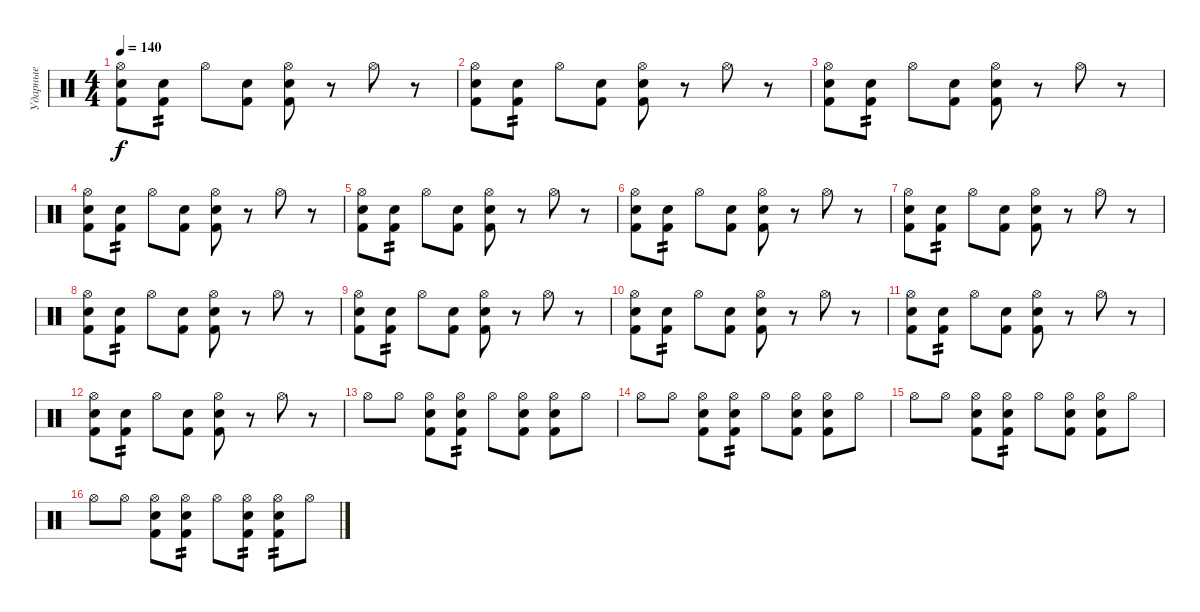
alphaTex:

\track ("Ударные" "Ударные") {instrument percussion}
\staff {score}
\articulation defaults
\ts (4 4)
\tempo 140
\clef neutral
\ks c
("Snare (hit) 2" "Kick (hit) 2" "Hi-Hat (open)").8{dy f} ("Snare (hit) 2" "Kick (hit) 2").8{tp 2} "Hi-Hat (open)".8 ("Snare (hit) 2" "Kick (hit) 2").8 ("Snare (hit) 2" "Kick (hit) 2" "Hi-Hat (open)").8 r.8 "Hi-Hat (open)".8 r.8 |
("Snare (hit) 2" "Kick (hit) 2" "Hi-Hat (open)").8 ("Snare (hit) 2" "Kick (hit) 2").8{tp 2} "Hi-Hat (open)".8 ("Snare (hit) 2" "Kick (hit) 2").8 ("Snare (hit) 2" "Kick (hit) 2" "Hi-Hat (open)").8 r.8 "Hi-Hat (open)".8 r.8 |
("Snare (hit) 2" "Kick (hit) 2" "Hi-Hat (open)").8 ("Snare (hit) 2" "Kick (hit) 2").8{tp 2} "Hi-Hat (open)".8 ("Snare (hit) 2" "Kick (hit) 2").8 ("Snare (hit) 2" "Kick (hit) 2" "Hi-Hat (open)").8 r.8 "Hi-Hat (open)".8 r.8 |
("Snare (hit) 2" "Kick (hit) 2" "Hi-Hat (open)").8 ("Snare (hit) 2" "Kick (hit) 2").8{tp 2} "Hi-Hat (open)".8 ("Snare (hit) 2" "Kick (hit) 2").8 ("Snare (hit) 2" "Kick (hit) 2" "Hi-Hat (open)").8 r.8 "Hi-Hat (open)".8 r.8 |
("Snare (hit) 2" "Kick (hit) 2" "Hi-Hat (open)").8 ("Snare (hit) 2" "Kick (hit) 2").8{tp 2} "Hi-Hat (open)".8 ("Snare (hit) 2" "Kick (hit) 2").8 ("Snare (hit) 2" "Kick (hit) 2" "Hi-Hat (open)").8 r.8 "Hi-Hat (open)".8 r.8 |
("Snare (hit) 2" "Kick (hit) 2" "Hi-Hat (open)").8 ("Snare (hit) 2" "Kick (hit) 2").8{tp 2} "Hi-Hat (open)".8 ("Snare (hit) 2" "Kick (hit) 2").8 ("Snare (hit) 2" "Kick (hit) 2" "Hi-Hat (open)").8 r.8 "Hi-Hat (open)".8 r.8 |
("Snare (hit) 2" "Kick (hit) 2" "Hi-Hat (open)").8 ("Snare (hit) 2" "Kick (hit) 2").8{tp 2} "Hi-Hat (open)".8 ("Snare (hit) 2" "Kick (hit) 2").8 ("Snare (hit) 2" "Kick (hit) 2" "Hi-Hat (open)").8 r.8 "Hi-Hat (open)".8 r.8 |
("Snare (hit) 2" "Kick (hit) 2" "Hi-Hat (open)").8 ("Snare (hit) 2" "Kick (hit) 2").8{tp 2} "Hi-Hat (open)".8 ("Snare (hit) 2" "Kick (hit) 2").8 ("Snare (hit) 2" "Kick (hit) 2" "Hi-Hat (open)").8 r.8 "Hi-Hat (open)".8 r.8 |
("Snare (hit) 2" "Kick (hit) 2" "Hi-Hat (open)").8 ("Snare (hit) 2" "Kick (hit) 2").8{tp 2} "Hi-Hat (open)".8 ("Snare (hit) 2" "Kick (hit) 2").8 ("Snare (hit) 2" "Kick (hit) 2" "Hi-Hat (open)").8 r.8 "Hi-Hat (open)".8 r.8 |
("Snare (hit) 2" "Kick (hit) 2" "Hi-Hat (open)").8 ("Snare (hit) 2" "Kick (hit) 2").8{tp 2} "Hi-Hat (open)".8 ("Snare (hit) 2" "Kick (hit) 2").8 ("Snare (hit) 2" "Kick (hit) 2" "Hi-Hat (open)").8 r.8 "Hi-Hat (open)".8 r.8 |
("Snare (hit) 2" "Kick (hit) 2" "Hi-Hat (open)").8 ("Snare (hit) 2" "Kick (hit) 2").8{tp 2} "Hi-Hat (open)".8 ("Snare (hit) 2" "Kick (hit) 2").8 ("Snare (hit) 2" "Kick (hit) 2" "Hi-Hat (open)").8 r.8 "Hi-Hat (open)".8 r.8 |
("Snare (hit) 2" "Kick (hit) 2" "Hi-Hat (open)").8 ("Snare (hit) 2" "Kick (hit) 2").8{tp 2} "Hi-Hat (open)".8 ("Snare (hit) 2" "Kick (hit) 2").8 ("Snare (hit) 2" "Kick (hit) 2" "Hi-Hat (open)").8 r.8 "Hi-Hat (open)".8 r.8 |
"Hi-Hat (open)".8 "Hi-Hat (open)".8 ("Snare (hit) 2" "Kick (hit) 2" "Hi-Hat (open)").8 ("Snare (hit) 2" "Kick (hit) 2" "Hi-Hat (open)").8{tp 2} "Hi-Hat (open)".8 ("Snare (hit) 2" "Kick (hit) 2" "Hi-Hat (open)").8 ("Snare (hit) 2" "Kick (hit) 2" "Hi-Hat (open)").8 "Hi-Hat (open)".8 |
"Hi-Hat (open)".8 "Hi-Hat (open)".8 ("Snare (hit) 2" "Kick (hit) 2" "Hi-Hat (open)").8 ("Snare (hit) 2" "Kick (hit) 2" "Hi-Hat (open)").8{tp 2} "Hi-Hat (open)".8 ("Snare (hit) 2" "Kick (hit) 2" "Hi-Hat (open)").8 ("Snare (hit) 2" "Kick (hit) 2" "Hi-Hat (open)").8 "Hi-Hat (open)".8 |
"Hi-Hat (open)".8 "Hi-Hat (open)".8 ("Snare (hit) 2" "Kick (hit) 2" "Hi-Hat (open)").8 ("Snare (hit) 2" "Kick (hit) 2" "Hi-Hat (open)").8{tp 2} "Hi-Hat (open)".8 ("Snare (hit) 2" "Kick (hit) 2" "Hi-Hat (open)").8 ("Snare (hit) 2" "Kick (hit) 2" "Hi-Hat (open)").8 "Hi-Hat (open)".8 |
"Hi-Hat (open)".8 "Hi-Hat (open)".8 ("Snare (hit) 2" "Kick (hit) 2" "Hi-Hat (open)").8 ("Snare (hit) 2" "Kick (hit) 2" "Hi-Hat (open)").8{tp 2} "Hi-Hat (open)".8 ("Snare (hit) 2" "Kick (hit) 2" "Hi-Hat (open)").8{tp 2} ("Snare (hit) 2" "Kick (hit) 2" "Hi-Hat (open)").8{tp 2} "Hi-Hat (open)".8
